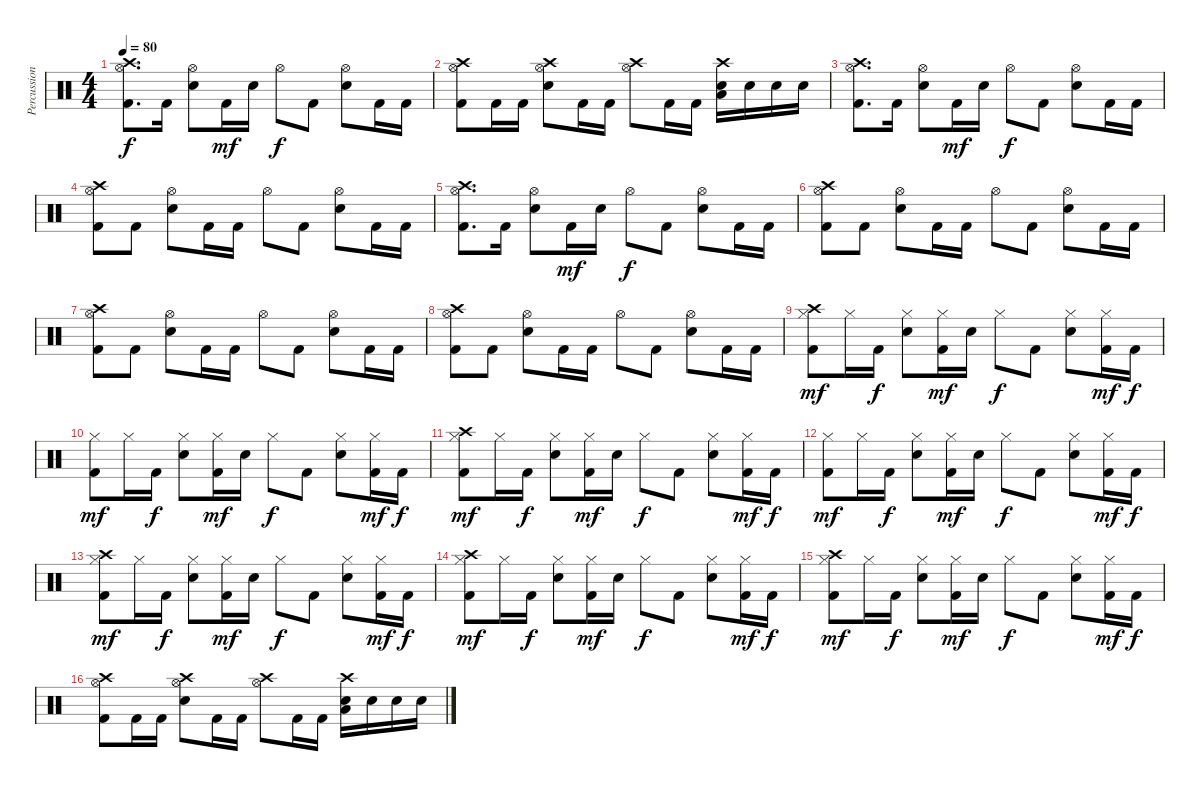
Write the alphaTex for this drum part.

\track ("Percussion" "Percussion") {instrument percussion}
\staff {score}
\articulation defaults
\ts (4 4)
\tempo 80
\clef neutral
\ks c
("Crash high (hit)" "Hi-Hat (open)" "Kick (hit) 2").8{d dy f} "Kick (hit) 2".16 ("Hi-Hat (open)" "Snare (hit) 2").8 "Kick (hit) 2".16{dy mf} "Snare (hit) 2".16 "Hi-Hat (open)".8{dy f} "Kick (hit) 2".8 ("Hi-Hat (open)" "Snare (hit) 2").8 "Kick (hit) 2".16 "Kick (hit) 2".16 |
("Crash high (hit)" "Hi-Hat (open)" "Kick (hit) 2").8 "Kick (hit) 2".16 "Kick (hit) 2".16 ("Crash high (hit)" "Hi-Hat (open)" "Snare (hit) 2").8 "Kick (hit) 2".16 "Kick (hit) 2".16 ("Crash high (hit)" "Hi-Hat (open)").8 "Kick (hit) 2".16 "Kick (hit) 2".16 ("Crash high (hit)" "Low Floor Tom (hit)" "Snare (hit) 2").16 "Snare (hit) 2".16 "Snare (hit) 2".16 "Snare (hit) 2".16 |
("Crash high (hit)" "Hi-Hat (open)" "Kick (hit) 2").8{d} "Kick (hit) 2".16 ("Hi-Hat (open)" "Snare (hit) 2").8 "Kick (hit) 2".16{dy mf} "Snare (hit) 2".16 "Hi-Hat (open)".8{dy f} "Kick (hit) 2".8 ("Hi-Hat (open)" "Snare (hit) 2").8 "Kick (hit) 2".16 "Kick (hit) 2".16 |
("Crash high (hit)" "Hi-Hat (open)" "Kick (hit) 2").8 "Kick (hit) 2".8 ("Hi-Hat (open)" "Snare (hit) 2").8 "Kick (hit) 2".16 "Kick (hit) 2".16 "Hi-Hat (open)".8 "Kick (hit) 2".8 ("Hi-Hat (open)" "Snare (hit) 2").8 "Kick (hit) 2".16 "Kick (hit) 2".16 |
("Crash high (hit)" "Hi-Hat (open)" "Kick (hit) 2").8{d} "Kick (hit) 2".16 ("Hi-Hat (open)" "Snare (hit) 2").8 "Kick (hit) 2".16{dy mf} "Snare (hit) 2".16 "Hi-Hat (open)".8{dy f} "Kick (hit) 2".8 ("Hi-Hat (open)" "Snare (hit) 2").8 "Kick (hit) 2".16 "Kick (hit) 2".16 |
("Crash high (hit)" "Hi-Hat (open)" "Kick (hit) 2").8 "Kick (hit) 2".8 ("Hi-Hat (open)" "Snare (hit) 2").8 "Kick (hit) 2".16 "Kick (hit) 2".16 "Hi-Hat (open)".8 "Kick (hit) 2".8 ("Hi-Hat (open)" "Snare (hit) 2").8 "Kick (hit) 2".16 "Kick (hit) 2".16 |
("Crash high (hit)" "Hi-Hat (open)" "Kick (hit) 2").8 "Kick (hit) 2".8 ("Hi-Hat (open)" "Snare (hit) 2").8 "Kick (hit) 2".16 "Kick (hit) 2".16 "Hi-Hat (open)".8 "Kick (hit) 2".8 ("Hi-Hat (open)" "Snare (hit) 2").8 "Kick (hit) 2".16 "Kick (hit) 2".16 |
("Crash high (hit)" "Hi-Hat (open)" "Kick (hit) 2").8 "Kick (hit) 2".8 ("Hi-Hat (open)" "Snare (hit) 2").8 "Kick (hit) 2".16 "Kick (hit) 2".16 "Hi-Hat (open)".8 "Kick (hit) 2".8 ("Hi-Hat (open)" "Snare (hit) 2").8 "Kick (hit) 2".16 "Kick (hit) 2".16 |
("Crash high (hit)" "Hi-Hat (closed)" "Kick (hit) 2").8{dy mf} "Hi-Hat (closed)".16 "Kick (hit) 2".16{dy f} ("Hi-Hat (closed)" "Snare (hit) 2").8 ("Hi-Hat (closed)" "Kick (hit) 2").16{dy mf} "Snare (hit) 2".16 "Hi-Hat (closed)".8{dy f} "Kick (hit) 2".8 ("Hi-Hat (closed)" "Snare (hit) 2").8 ("Hi-Hat (closed)" "Kick (hit) 2").16{dy mf} "Kick (hit) 2".16{dy f} |
("Hi-Hat (closed)" "Kick (hit) 2").8{dy mf} "Hi-Hat (closed)".16 "Kick (hit) 2".16{dy f} ("Hi-Hat (closed)" "Snare (hit) 2").8 ("Hi-Hat (closed)" "Kick (hit) 2").16{dy mf} "Snare (hit) 2".16 "Hi-Hat (closed)".8{dy f} "Kick (hit) 2".8 ("Hi-Hat (closed)" "Snare (hit) 2").8 ("Hi-Hat (closed)" "Kick (hit) 2").16{dy mf} "Kick (hit) 2".16{dy f} |
("Crash high (hit)" "Hi-Hat (closed)" "Kick (hit) 2").8{dy mf} "Hi-Hat (closed)".16 "Kick (hit) 2".16{dy f} ("Hi-Hat (closed)" "Snare (hit) 2").8 ("Hi-Hat (closed)" "Kick (hit) 2").16{dy mf} "Snare (hit) 2".16 "Hi-Hat (closed)".8{dy f} "Kick (hit) 2".8 ("Hi-Hat (closed)" "Snare (hit) 2").8 ("Hi-Hat (closed)" "Kick (hit) 2").16{dy mf} "Kick (hit) 2".16{dy f} |
("Hi-Hat (closed)" "Kick (hit) 2").8{dy mf} "Hi-Hat (closed)".16 "Kick (hit) 2".16{dy f} ("Hi-Hat (closed)" "Snare (hit) 2").8 ("Hi-Hat (closed)" "Kick (hit) 2").16{dy mf} "Snare (hit) 2".16 "Hi-Hat (closed)".8{dy f} "Kick (hit) 2".8 ("Hi-Hat (closed)" "Snare (hit) 2").8 ("Hi-Hat (closed)" "Kick (hit) 2").16{dy mf} "Kick (hit) 2".16{dy f} |
("Crash high (hit)" "Hi-Hat (closed)" "Kick (hit) 2").8{dy mf} "Hi-Hat (closed)".16 "Kick (hit) 2".16{dy f} ("Hi-Hat (closed)" "Snare (hit) 2").8 ("Hi-Hat (closed)" "Kick (hit) 2").16{dy mf} "Snare (hit) 2".16 "Hi-Hat (closed)".8{dy f} "Kick (hit) 2".8 ("Hi-Hat (closed)" "Snare (hit) 2").8 ("Hi-Hat (closed)" "Kick (hit) 2").16{dy mf} "Kick (hit) 2".16{dy f} |
("Crash high (hit)" "Hi-Hat (closed)" "Kick (hit) 2").8{dy mf} "Hi-Hat (closed)".16 "Kick (hit) 2".16{dy f} ("Hi-Hat (closed)" "Snare (hit) 2").8 ("Hi-Hat (closed)" "Kick (hit) 2").16{dy mf} "Snare (hit) 2".16 "Hi-Hat (closed)".8{dy f} "Kick (hit) 2".8 ("Hi-Hat (closed)" "Snare (hit) 2").8 ("Hi-Hat (closed)" "Kick (hit) 2").16{dy mf} "Kick (hit) 2".16{dy f} |
("Crash high (hit)" "Hi-Hat (closed)" "Kick (hit) 2").8{dy mf} "Hi-Hat (closed)".16 "Kick (hit) 2".16{dy f} ("Hi-Hat (closed)" "Snare (hit) 2").8 ("Hi-Hat (closed)" "Kick (hit) 2").16{dy mf} "Snare (hit) 2".16 "Hi-Hat (closed)".8{dy f} "Kick (hit) 2".8 ("Hi-Hat (closed)" "Snare (hit) 2").8 ("Hi-Hat (closed)" "Kick (hit) 2").16{dy mf} "Kick (hit) 2".16{dy f} |
("Crash high (hit)" "Hi-Hat (open)" "Kick (hit) 2").8 "Kick (hit) 2".16 "Kick (hit) 2".16 ("Crash high (hit)" "Hi-Hat (open)" "Snare (hit) 2").8 "Kick (hit) 2".16 "Kick (hit) 2".16 ("Crash high (hit)" "Hi-Hat (open)").8 "Kick (hit) 2".16 "Kick (hit) 2".16 ("Crash high (hit)" "Low Floor Tom (hit)" "Snare (hit) 2").16 "Snare (hit) 2".16 "Snare (hit) 2".16 "Snare (hit) 2".16
